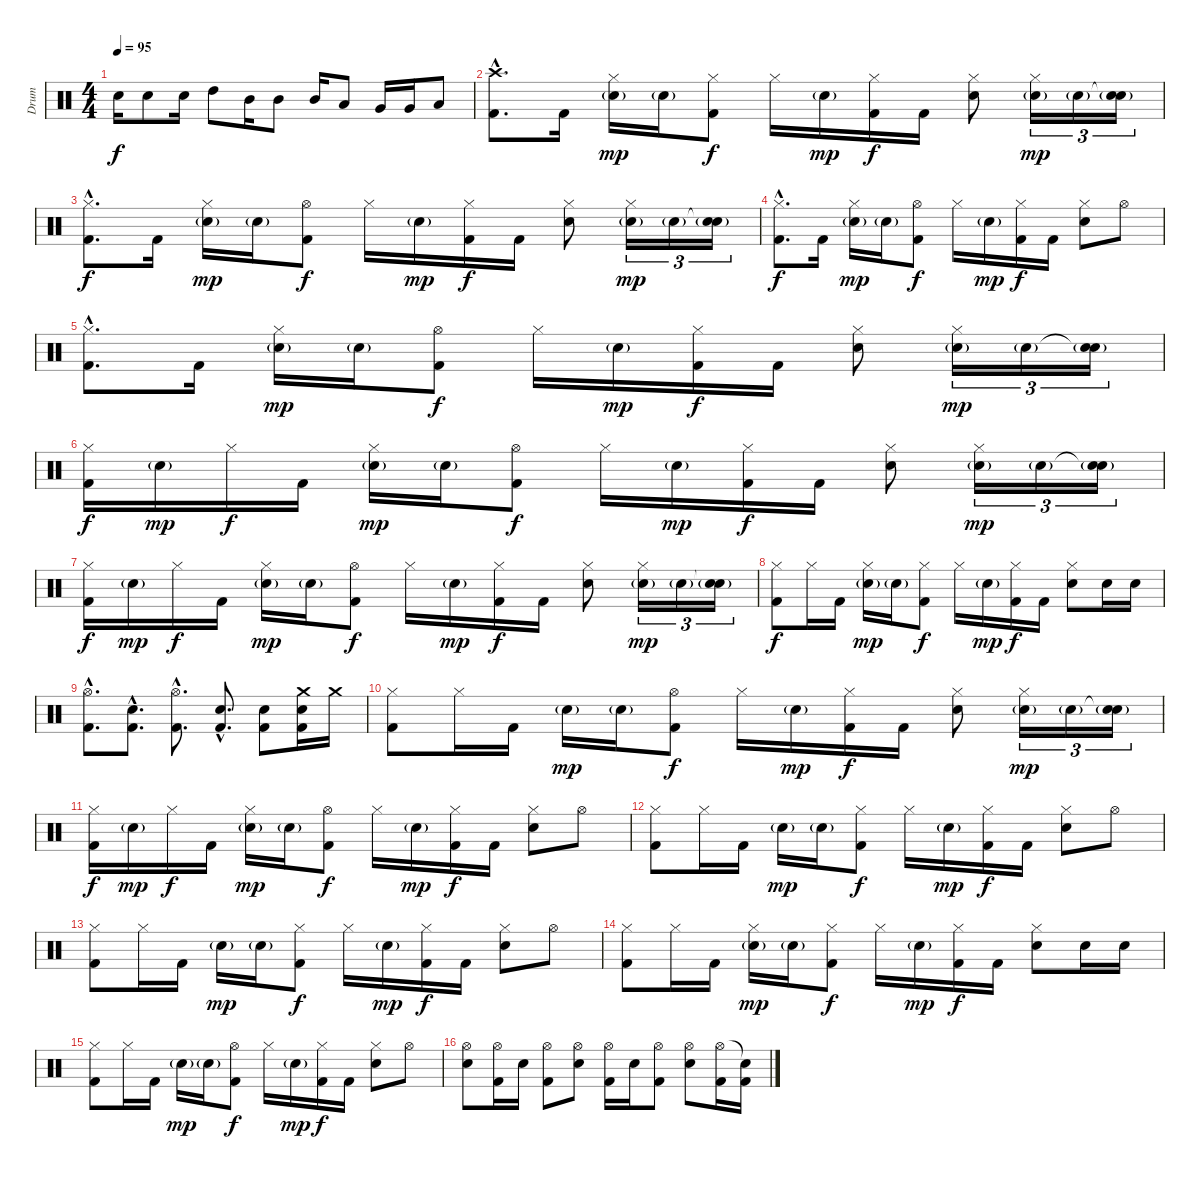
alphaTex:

\track ("Drum" "Drum") {instrument percussion}
\staff {score}
\articulation defaults
\ts (4 4)
\tempo 95
\clef neutral
\ks c "Electric Snare (hit)".16{dy f} "Electric Snare (hit)".8 "Electric Snare (hit)".16 "High Tom (hit)".8 "Mid Tom (hit)".16 "Mid Tom (hit)".8 "Mid Tom (hit)".16 "Low Tom (hit)".8 "Very Low Tom (hit)".16 "Very Low Tom (hit)".16 "Low Floor Tom (hit)".8
|
("Crash high (hit)"{hac} "Kick (hit) 2"{hac}).8{d} "Kick (hit) 2".16 ("Hi-Hat (closed)" "Electric Snare (hit)"{g}).16{dy mp} "Electric Snare (hit)"{g}.16 ("Hi-Hat (closed)" "Kick (hit) 2").8{dy f} "Hi-Hat (closed)".16 "Electric Snare (hit)"{g}.16{dy mp} ("Hi-Hat (closed)" "Kick (hit) 2").16{dy f} "Kick (hit) 2".16 ("Hi-Hat (closed)" "Electric Snare (hit)").8 ("Hi-Hat (closed)" "Electric Snare (hit)"{g}).16{tu (3 2) dy mp} "Electric Snare (hit)"{g}.16{tu (3 2)} ("Snare (hit)"{t} "Electric Snare (hit)"{g}).16{tu (3 2)} |
("Hi-Hat (closed)"{hac} "Kick (hit) 2"{hac}).8{d dy f} "Kick (hit) 2".16 ("Hi-Hat (closed)" "Electric Snare (hit)"{g}).16{dy mp} "Electric Snare (hit)"{g}.16 ("Hi-Hat (open)" "Kick (hit) 2").8{dy f} "Hi-Hat (closed)".16 "Electric Snare (hit)"{g}.16{dy mp} ("Hi-Hat (closed)" "Kick (hit) 2").16{dy f} "Kick (hit) 2".16 ("Hi-Hat (closed)" "Electric Snare (hit)").8 ("Hi-Hat (closed)" "Electric Snare (hit)"{g}).16{tu (3 2) dy mp} "Electric Snare (hit)"{g}.16{tu (3 2)} ("Snare (hit)"{t} "Electric Snare (hit)"{g}).16{tu (3 2)} |
("Hi-Hat (closed)"{hac} "Kick (hit) 2"{hac}).8{d dy f} "Kick (hit) 2".16 ("Hi-Hat (closed)" "Electric Snare (hit)"{g}).16{dy mp} "Electric Snare (hit)"{g}.16 ("Hi-Hat (open)" "Kick (hit) 2").8{dy f} "Hi-Hat (closed)".16 "Electric Snare (hit)"{g}.16{dy mp} ("Hi-Hat (closed)" "Kick (hit) 2").16{dy f} "Kick (hit) 2".16 ("Hi-Hat (closed)" "Electric Snare (hit)").8 "Hi-Hat (open)".8 |
("Hi-Hat (closed)"{hac} "Kick (hit) 2"{hac}).8{d} "Kick (hit) 2".16 ("Hi-Hat (closed)" "Electric Snare (hit)"{g}).16{dy mp} "Electric Snare (hit)"{g}.16 ("Hi-Hat (open)" "Kick (hit) 2").8{dy f} "Hi-Hat (closed)".16 "Electric Snare (hit)"{g}.16{dy mp} ("Hi-Hat (closed)" "Kick (hit) 2").16{dy f} "Kick (hit) 2".16 ("Hi-Hat (closed)" "Electric Snare (hit)").8 ("Hi-Hat (closed)" "Electric Snare (hit)"{g}).16{tu (3 2) dy mp} "Electric Snare (hit)"{g}.16{tu (3 2)} ("Snare (hit)"{t} "Electric Snare (hit)"{g}).16{tu (3 2)} |
("Hi-Hat (closed)" "Kick (hit) 2").16{dy f} "Electric Snare (hit)"{g}.16{dy mp} "Hi-Hat (closed)".16{dy f} "Kick (hit) 2".16 ("Hi-Hat (closed)" "Electric Snare (hit)"{g}).16{dy mp} "Electric Snare (hit)"{g}.16 ("Hi-Hat (open)" "Kick (hit) 2").8{dy f} "Hi-Hat (closed)".16 "Electric Snare (hit)"{g}.16{dy mp} ("Hi-Hat (closed)" "Kick (hit) 2").16{dy f} "Kick (hit) 2".16 ("Hi-Hat (closed)" "Electric Snare (hit)").8 ("Hi-Hat (closed)" "Electric Snare (hit)"{g}).16{tu (3 2) dy mp} "Electric Snare (hit)"{g}.16{tu (3 2)} ("Snare (hit)"{t} "Electric Snare (hit)"{g}).16{tu (3 2)} |
("Hi-Hat (closed)" "Kick (hit) 2").16{dy f} "Electric Snare (hit)"{g}.16{dy mp} "Hi-Hat (closed)".16{dy f} "Kick (hit) 2".16 ("Hi-Hat (closed)" "Electric Snare (hit)"{g}).16{dy mp} "Electric Snare (hit)"{g}.16 ("Hi-Hat (open)" "Kick (hit) 2").8{dy f} "Hi-Hat (closed)".16 "Electric Snare (hit)"{g}.16{dy mp} ("Hi-Hat (closed)" "Kick (hit) 2").16{dy f} "Kick (hit) 2".16 ("Hi-Hat (closed)" "Electric Snare (hit)").8 ("Hi-Hat (closed)" "Electric Snare (hit)"{g}).16{tu (3 2) dy mp} "Electric Snare (hit)"{g}.16{tu (3 2)} ("Snare (hit)"{t} "Electric Snare (hit)"{g}).16{tu (3 2)} |
("Hi-Hat (closed)" "Kick (hit) 2").8{dy f} "Hi-Hat (closed)".16 "Kick (hit) 2".16 ("Hi-Hat (closed)" "Electric Snare (hit)"{g}).16{dy mp} "Electric Snare (hit)"{g}.16 ("Hi-Hat (closed)" "Kick (hit) 2").8{dy f} "Hi-Hat (closed)".16 "Electric Snare (hit)"{g}.16{dy mp} ("Hi-Hat (closed)" "Kick (hit) 2").16{dy f} "Kick (hit) 2".16 ("Hi-Hat (closed)" "Electric Snare (hit)").8 "Electric Snare (hit)".16 "Electric Snare (hit)".16 |
("Hi-Hat (open)"{hac} "Kick (hit) 2"{hac}).8{d} ("Electric Snare (hit)"{hac} "Kick (hit) 2"{hac}).8{d} ("Hi-Hat (open)"{hac} "Kick (hit) 2"{hac}).8{d} ("Electric Snare (hit)"{hac} "Kick (hit) 2"{hac}).8{d} ("Electric Snare (hit)" "Kick (hit) 2").8 ("Crash medium (hit)" "Electric Snare (hit)" "Kick (hit) 2").16 "Crash medium (hit)".16 |
("Hi-Hat (closed)" "Kick (hit) 2").8 "Hi-Hat (closed)".16 "Kick (hit) 2".16 "Electric Snare (hit)"{g}.16{dy mp} "Electric Snare (hit)"{g}.16 ("Hi-Hat (open)" "Kick (hit) 2").8{dy f} "Hi-Hat (closed)".16 "Electric Snare (hit)"{g}.16{dy mp} ("Hi-Hat (closed)" "Kick (hit) 2").16{dy f} "Kick (hit) 2".16 ("Hi-Hat (closed)" "Electric Snare (hit)").8 ("Hi-Hat (closed)" "Electric Snare (hit)"{g}).16{tu (3 2) dy mp} "Electric Snare (hit)"{g}.16{tu (3 2)} ("Snare (hit)"{t} "Electric Snare (hit)"{g}).16{tu (3 2)} |
("Hi-Hat (closed)" "Kick (hit) 2").16{dy f} "Electric Snare (hit)"{g}.16{dy mp} "Hi-Hat (closed)".16{dy f} "Kick (hit) 2".16 ("Hi-Hat (closed)" "Electric Snare (hit)"{g}).16{dy mp} "Electric Snare (hit)"{g}.16 ("Hi-Hat (open)" "Kick (hit) 2").8{dy f} "Hi-Hat (closed)".16 "Electric Snare (hit)"{g}.16{dy mp} ("Hi-Hat (closed)" "Kick (hit) 2").16{dy f} "Kick (hit) 2".16 ("Hi-Hat (closed)" "Electric Snare (hit)").8 "Hi-Hat (open)".8 |
("Hi-Hat (closed)" "Kick (hit) 2").8 "Hi-Hat (closed)".16 "Kick (hit) 2".16 "Electric Snare (hit)"{g}.16{dy mp} "Electric Snare (hit)"{g}.16 ("Hi-Hat (closed)" "Kick (hit) 2").8{dy f} "Hi-Hat (closed)".16 "Electric Snare (hit)"{g}.16{dy mp} ("Hi-Hat (closed)" "Kick (hit) 2").16{dy f} "Kick (hit) 2".16 ("Hi-Hat (closed)" "Electric Snare (hit)").8 "Hi-Hat (open)".8 |
("Hi-Hat (closed)" "Kick (hit) 2").8 "Hi-Hat (closed)".16 "Kick (hit) 2".16 "Electric Snare (hit)"{g}.16{dy mp} "Electric Snare (hit)"{g}.16 ("Hi-Hat (closed)" "Kick (hit) 2").8{dy f} "Hi-Hat (closed)".16 "Electric Snare (hit)"{g}.16{dy mp} ("Hi-Hat (closed)" "Kick (hit) 2").16{dy f} "Kick (hit) 2".16 ("Hi-Hat (closed)" "Electric Snare (hit)").8 "Hi-Hat (open)".8 |
("Hi-Hat (closed)" "Kick (hit) 2").8 "Hi-Hat (closed)".16 "Kick (hit) 2".16 ("Hi-Hat (closed)" "Electric Snare (hit)"{g}).16{dy mp} "Electric Snare (hit)"{g}.16 ("Hi-Hat (closed)" "Kick (hit) 2").8{dy f} "Hi-Hat (closed)".16 "Electric Snare (hit)"{g}.16{dy mp} ("Hi-Hat (closed)" "Kick (hit) 2").16{dy f} "Kick (hit) 2".16 ("Hi-Hat (closed)" "Electric Snare (hit)").8 "Electric Snare (hit)".16 "Electric Snare (hit)".16 |
("Hi-Hat (closed)" "Kick (hit) 2").8 "Hi-Hat (closed)".16 "Kick (hit) 2".16 "Electric Snare (hit)"{g}.16{dy mp} "Electric Snare (hit)"{g}.16 ("Hi-Hat (open)" "Kick (hit) 2").8{dy f} "Hi-Hat (closed)".16 "Electric Snare (hit)"{g}.16{dy mp} ("Hi-Hat (closed)" "Kick (hit) 2").16{dy f} "Kick (hit) 2".16 ("Hi-Hat (closed)" "Electric Snare (hit)").8 "Hi-Hat (open)".8 |
("Hi-Hat (open)" "Electric Snare (hit)").8 ("Hi-Hat (open)" "Kick (hit) 2").16 "Electric Snare (hit)".16 ("Hi-Hat (open)" "Kick (hit) 2").8 ("Hi-Hat (open)" "Electric Snare (hit)").8 ("Hi-Hat (open)" "Kick (hit) 2").16 "Electric Snare (hit)".16 ("Hi-Hat (open)" "Kick (hit) 2").8 ("Hi-Hat (open)" "Electric Snare (hit)").8 ("Hi-Hat (open)" "Kick (hit) 2").16 ("Snare (hit)"{t} "Kick (hit) 2").16
